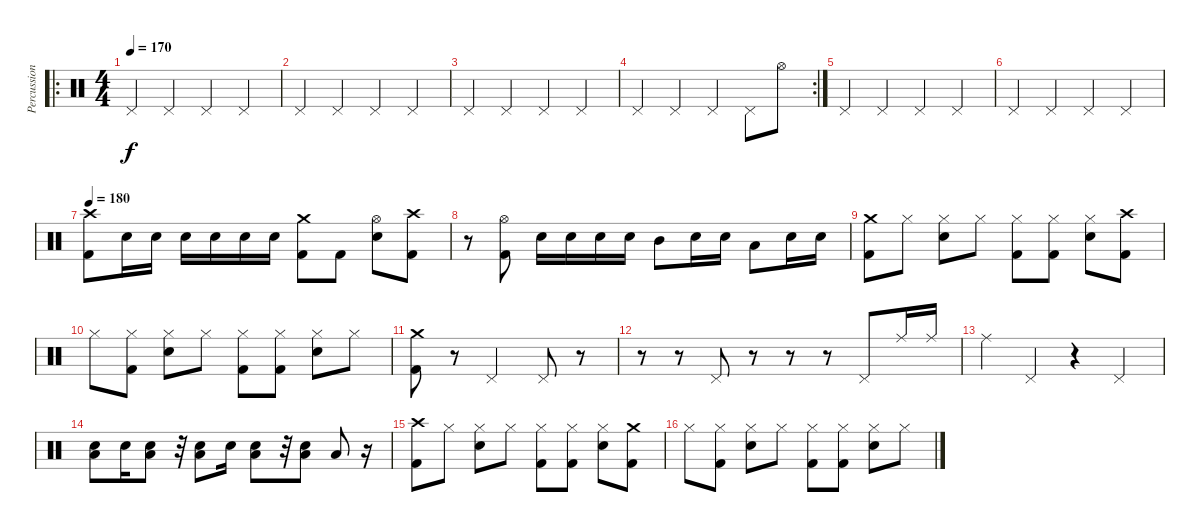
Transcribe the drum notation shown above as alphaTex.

\track ("Percussion" "Percussion") {instrument percussion}
\staff {score}
\articulation defaults
\ro
\ts (4 4)
\tempo 170
\clef neutral
\ks c "Pedal Hi-Hat (hit)".4{dy f} "Pedal Hi-Hat (hit)".4 "Pedal Hi-Hat (hit)".4 "Pedal Hi-Hat (hit)".4
|
"Pedal Hi-Hat (hit)".4 "Pedal Hi-Hat (hit)".4 "Pedal Hi-Hat (hit)".4 "Pedal Hi-Hat (hit)".4 |
"Pedal Hi-Hat (hit)".4 "Pedal Hi-Hat (hit)".4 "Pedal Hi-Hat (hit)".4 "Pedal Hi-Hat (hit)".4 |
\rc 2 "Pedal Hi-Hat (hit)".4 "Pedal Hi-Hat (hit)".4 "Pedal Hi-Hat (hit)".4 "Pedal Hi-Hat (hit)".8 "Hi-Hat (open)".8
|
"Pedal Hi-Hat (hit)".4 "Pedal Hi-Hat (hit)".4 "Pedal Hi-Hat (hit)".4 "Pedal Hi-Hat (hit)".4 |
"Pedal Hi-Hat (hit)".4 "Pedal Hi-Hat (hit)".4 "Pedal Hi-Hat (hit)".4 "Pedal Hi-Hat (hit)".4 |
\tempo 180
("Crash high (hit)" "Kick (hit) 2").8 "Electric Snare (hit)".16 "Electric Snare (hit)".16 "Electric Snare (hit)".16 "Electric Snare (hit)".16 "Electric Snare (hit)".16 "Electric Snare (hit)".16 ("Crash medium (hit)" "Kick (hit) 2").8 "Kick (hit) 2".8 ("Hi-Hat (open)" "Electric Snare (hit)").8 ("Crash high (hit)" "Kick (hit) 2").8 |
r.8 ("Hi-Hat (open)" "Kick (hit) 2").8 "Electric Snare (hit)".16 "Electric Snare (hit)".16 "Electric Snare (hit)".16 "Electric Snare (hit)".16 "Mid Tom (hit)".8 "Electric Snare (hit)".16 "Electric Snare (hit)".16 "Low Tom (hit)".8 "Electric Snare (hit)".16 "Electric Snare (hit)".16 |
("Crash medium (hit)" "Kick (hit) 2").8 "Hi-Hat (closed)".8 ("Hi-Hat (closed)" "Electric Snare (hit)").8 "Hi-Hat (closed)".8 ("Hi-Hat (closed)" "Kick (hit) 2").8 ("Hi-Hat (closed)" "Kick (hit) 2").8 ("Hi-Hat (closed)" "Electric Snare (hit)").8 ("Crash high (hit)" "Kick (hit) 2").8 |
"Hi-Hat (closed)".8 ("Hi-Hat (closed)" "Kick (hit) 2").8 ("Hi-Hat (closed)" "Electric Snare (hit)").8 "Hi-Hat (closed)".8 ("Hi-Hat (closed)" "Kick (hit) 2").8 ("Hi-Hat (closed)" "Kick (hit) 2").8 ("Hi-Hat (closed)" "Electric Snare (hit)").8 "Hi-Hat (closed)".8 |
("Crash medium (hit)" "Kick (hit) 2").8 r.8 "Pedal Hi-Hat (hit)".2 "Pedal Hi-Hat (hit)".8 r.8 |
r.8 r.8 "Pedal Hi-Hat (hit)".8 r.8 r.8 r.8 "Pedal Hi-Hat (hit)".8 "Ride (middle)".16 "Ride (middle)".16 |
"Ride (middle)".4 "Pedal Hi-Hat (hit)".4 r.4 "Pedal Hi-Hat (hit)".4 |
("Low Tom (hit)" "Electric Snare (hit)").8 "Electric Snare (hit)".16 ("Low Tom (hit)" "Electric Snare (hit)").8 r.32 ("Low Tom (hit)" "Electric Snare (hit)").8 "Electric Snare (hit)".16 ("Low Tom (hit)" "Electric Snare (hit)").8 r.32 ("Low Tom (hit)" "Electric Snare (hit)").8 "Low Tom (hit)".8 r.16 |
("Crash high (hit)" "Kick (hit) 2").8 "Hi-Hat (closed)".8 ("Hi-Hat (closed)" "Electric Snare (hit)").8 "Hi-Hat (closed)".8 ("Hi-Hat (closed)" "Kick (hit) 2").8 ("Hi-Hat (closed)" "Kick (hit) 2").8 ("Hi-Hat (closed)" "Electric Snare (hit)").8 ("Crash medium (hit)" "Kick (hit) 2").8 |
"Hi-Hat (closed)".8 ("Hi-Hat (closed)" "Kick (hit) 2").8 ("Hi-Hat (closed)" "Electric Snare (hit)").8 "Hi-Hat (closed)".8 ("Hi-Hat (closed)" "Kick (hit) 2").8 ("Hi-Hat (closed)" "Kick (hit) 2").8 ("Hi-Hat (closed)" "Electric Snare (hit)").8 "Hi-Hat (closed)".8
